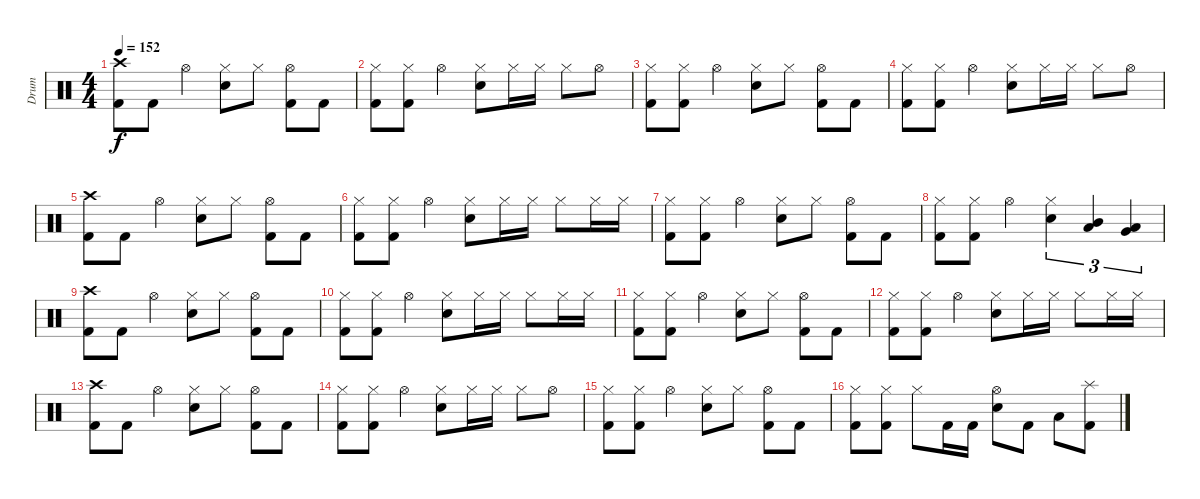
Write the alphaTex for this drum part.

\track ("Drum" "Drum") {instrument percussion}
\staff {score}
\articulation defaults
\ts (4 4)
\tempo 152
\clef neutral
\ks c
("Crash high (hit)" "Kick (hit) 2").8{dy f} "Kick (hit) 2".8 "Hi-Hat (open)".4 ("Hi-Hat (closed)" "Snare (hit) 2").8 "Hi-Hat (closed)".8 ("Hi-Hat (open)" "Kick (hit) 2").8 "Kick (hit) 2".8 |
("Hi-Hat (closed)" "Kick (hit) 2").8 ("Hi-Hat (closed)" "Kick (hit) 2").8 "Hi-Hat (open)".4 ("Hi-Hat (closed)" "Snare (hit) 2").8 "Hi-Hat (closed)".16 "Hi-Hat (closed)".16 "Hi-Hat (closed)".8 "Hi-Hat (open)".8 |
("Hi-Hat (closed)" "Kick (hit) 2").8 ("Hi-Hat (closed)" "Kick (hit) 2").8 "Hi-Hat (open)".4 ("Hi-Hat (closed)" "Snare (hit) 2").8 "Hi-Hat (closed)".8 ("Hi-Hat (open)" "Kick (hit) 2").8 "Kick (hit) 2".8 |
("Hi-Hat (closed)" "Kick (hit) 2").8 ("Hi-Hat (closed)" "Kick (hit) 2").8 "Hi-Hat (open)".4 ("Hi-Hat (closed)" "Snare (hit) 2").8 "Hi-Hat (closed)".16 "Hi-Hat (closed)".16 "Hi-Hat (closed)".8 "Hi-Hat (open)".8 |
("Crash high (hit)" "Kick (hit) 2").8 "Kick (hit) 2".8 "Hi-Hat (open)".4 ("Hi-Hat (closed)" "Snare (hit) 2").8 "Hi-Hat (closed)".8 ("Hi-Hat (open)" "Kick (hit) 2").8 "Kick (hit) 2".8 |
("Hi-Hat (closed)" "Kick (hit) 2").8 ("Hi-Hat (closed)" "Kick (hit) 2").8 "Hi-Hat (open)".4 ("Hi-Hat (closed)" "Snare (hit) 2").8 "Hi-Hat (closed)".16 "Hi-Hat (closed)".16 "Hi-Hat (closed)".8 "Hi-Hat (closed)".16 "Hi-Hat (closed)".16 |
("Hi-Hat (closed)" "Kick (hit) 2").8 ("Hi-Hat (closed)" "Kick (hit) 2").8 "Hi-Hat (open)".4 ("Hi-Hat (closed)" "Snare (hit) 2").8 "Hi-Hat (closed)".8 ("Hi-Hat (open)" "Kick (hit) 2").8 "Kick (hit) 2".8 |
("Hi-Hat (closed)" "Kick (hit) 2").8 ("Hi-Hat (closed)" "Kick (hit) 2").8 "Hi-Hat (open)".4 ("Hi-Hat (closed)" "Snare (hit) 2").4{tu (3 2)} ("Mid Tom (hit)" "Low Tom (hit)").4{tu (3 2)} ("Very Low Tom (hit)" "Low Floor Tom (hit)").4{tu (3 2)} |
("Crash high (hit)" "Kick (hit) 2").8 "Kick (hit) 2".8 "Hi-Hat (open)".4 ("Hi-Hat (closed)" "Snare (hit) 2").8 "Hi-Hat (closed)".8 ("Hi-Hat (open)" "Kick (hit) 2").8 "Kick (hit) 2".8 |
("Hi-Hat (closed)" "Kick (hit) 2").8 ("Hi-Hat (closed)" "Kick (hit) 2").8 "Hi-Hat (open)".4 ("Hi-Hat (closed)" "Snare (hit) 2").8 "Hi-Hat (closed)".16 "Hi-Hat (closed)".16 "Hi-Hat (closed)".8 "Hi-Hat (closed)".16 "Hi-Hat (closed)".16 |
("Hi-Hat (closed)" "Kick (hit) 2").8 ("Hi-Hat (closed)" "Kick (hit) 2").8 "Hi-Hat (open)".4 ("Hi-Hat (closed)" "Snare (hit) 2").8 "Hi-Hat (closed)".8 ("Hi-Hat (open)" "Kick (hit) 2").8 "Kick (hit) 2".8 |
("Hi-Hat (closed)" "Kick (hit) 2").8 ("Hi-Hat (closed)" "Kick (hit) 2").8 "Hi-Hat (open)".4 ("Hi-Hat (closed)" "Snare (hit) 2").8 "Hi-Hat (closed)".16 "Hi-Hat (closed)".16 "Hi-Hat (closed)".8 "Hi-Hat (closed)".16 "Hi-Hat (closed)".16 |
("Crash high (hit)" "Kick (hit) 2").8 "Kick (hit) 2".8 "Hi-Hat (open)".4 ("Hi-Hat (closed)" "Snare (hit) 2").8 "Hi-Hat (closed)".8 ("Hi-Hat (open)" "Kick (hit) 2").8 "Kick (hit) 2".8 |
("Hi-Hat (closed)" "Kick (hit) 2").8 ("Hi-Hat (closed)" "Kick (hit) 2").8 "Hi-Hat (open)".4 ("Hi-Hat (closed)" "Snare (hit) 2").8 "Hi-Hat (closed)".16 "Hi-Hat (closed)".16 "Hi-Hat (closed)".8 "Hi-Hat (open)".8 |
("Hi-Hat (closed)" "Kick (hit) 2").8 ("Hi-Hat (closed)" "Kick (hit) 2").8 "Hi-Hat (open)".4 ("Hi-Hat (closed)" "Snare (hit) 2").8 "Hi-Hat (closed)".8 ("Hi-Hat (open)" "Kick (hit) 2").8 "Kick (hit) 2".8 |
("Hi-Hat (closed)" "Kick (hit) 2").8 ("Hi-Hat (closed)" "Kick (hit) 2").8 "Hi-Hat (closed)".8 "Kick (hit) 2".16 "Kick (hit) 2".16 ("Hi-Hat (open)" "Snare (hit) 2").8 "Kick (hit) 2".8 "Low Tom (hit)".8 ("Splash (hit)" "Kick (hit) 2").8
